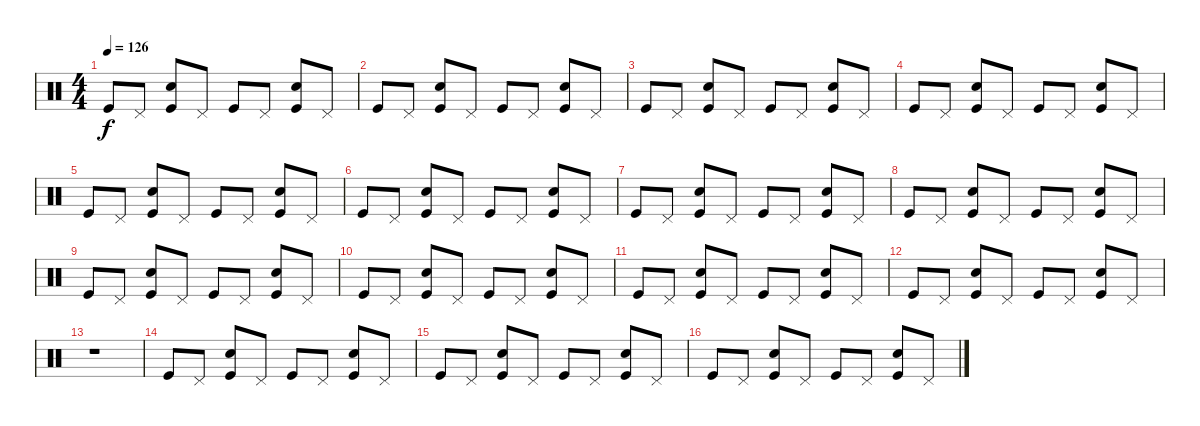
\track "" {instrument percussion}
\staff {score}
\articulation defaults
\ts (4 4)
\tempo 126
\clef neutral
\ks c "Kick (hit)".8{dy f} "Pedal Hi-Hat (hit)".8
("Kick (hit)" "Hand Clap (hit)").8 "Pedal Hi-Hat (hit)".8 "Kick (hit)".8 "Pedal Hi-Hat (hit)".8 ("Kick (hit)" "Hand Clap (hit)").8 "Pedal Hi-Hat (hit)".8 |
"Kick (hit)".8 "Pedal Hi-Hat (hit)".8 ("Kick (hit)" "Hand Clap (hit)").8 "Pedal Hi-Hat (hit)".8 "Kick (hit)".8 "Pedal Hi-Hat (hit)".8 ("Kick (hit)" "Hand Clap (hit)").8 "Pedal Hi-Hat (hit)".8 |
"Kick (hit)".8 "Pedal Hi-Hat (hit)".8 ("Kick (hit)" "Hand Clap (hit)").8 "Pedal Hi-Hat (hit)".8 "Kick (hit)".8 "Pedal Hi-Hat (hit)".8 ("Kick (hit)" "Hand Clap (hit)").8 "Pedal Hi-Hat (hit)".8 |
"Kick (hit)".8 "Pedal Hi-Hat (hit)".8 ("Kick (hit)" "Hand Clap (hit)").8 "Pedal Hi-Hat (hit)".8 "Kick (hit)".8 "Pedal Hi-Hat (hit)".8 ("Kick (hit)" "Hand Clap (hit)").8 "Pedal Hi-Hat (hit)".8 |
"Kick (hit)".8 "Pedal Hi-Hat (hit)".8 ("Kick (hit)" "Hand Clap (hit)").8 "Pedal Hi-Hat (hit)".8 "Kick (hit)".8 "Pedal Hi-Hat (hit)".8 ("Kick (hit)" "Hand Clap (hit)").8 "Pedal Hi-Hat (hit)".8 |
"Kick (hit)".8 "Pedal Hi-Hat (hit)".8 ("Kick (hit)" "Hand Clap (hit)").8 "Pedal Hi-Hat (hit)".8 "Kick (hit)".8 "Pedal Hi-Hat (hit)".8 ("Kick (hit)" "Hand Clap (hit)").8 "Pedal Hi-Hat (hit)".8 |
"Kick (hit)".8 "Pedal Hi-Hat (hit)".8 ("Kick (hit)" "Hand Clap (hit)").8 "Pedal Hi-Hat (hit)".8 "Kick (hit)".8 "Pedal Hi-Hat (hit)".8 ("Kick (hit)" "Hand Clap (hit)").8 "Pedal Hi-Hat (hit)".8 |
"Kick (hit)".8 "Pedal Hi-Hat (hit)".8 ("Kick (hit)" "Hand Clap (hit)").8 "Pedal Hi-Hat (hit)".8 "Kick (hit)".8 "Pedal Hi-Hat (hit)".8 ("Kick (hit)" "Hand Clap (hit)").8 "Pedal Hi-Hat (hit)".8 |
"Kick (hit)".8 "Pedal Hi-Hat (hit)".8 ("Kick (hit)" "Hand Clap (hit)").8 "Pedal Hi-Hat (hit)".8 "Kick (hit)".8 "Pedal Hi-Hat (hit)".8 ("Kick (hit)" "Hand Clap (hit)").8 "Pedal Hi-Hat (hit)".8 |
"Kick (hit)".8 "Pedal Hi-Hat (hit)".8 ("Kick (hit)" "Hand Clap (hit)").8 "Pedal Hi-Hat (hit)".8 "Kick (hit)".8 "Pedal Hi-Hat (hit)".8 ("Kick (hit)" "Hand Clap (hit)").8 "Pedal Hi-Hat (hit)".8 |
"Kick (hit)".8 "Pedal Hi-Hat (hit)".8 ("Kick (hit)" "Hand Clap (hit)").8 "Pedal Hi-Hat (hit)".8 "Kick (hit)".8 "Pedal Hi-Hat (hit)".8 ("Kick (hit)" "Hand Clap (hit)").8 "Pedal Hi-Hat (hit)".8 |
"Kick (hit)".8 "Pedal Hi-Hat (hit)".8 ("Kick (hit)" "Hand Clap (hit)").8 "Pedal Hi-Hat (hit)".8 "Kick (hit)".8 "Pedal Hi-Hat (hit)".8 ("Kick (hit)" "Hand Clap (hit)").8 "Pedal Hi-Hat (hit)".8 |
r.1 |
"Kick (hit)".8 "Pedal Hi-Hat (hit)".8 ("Kick (hit)" "Hand Clap (hit)").8 "Pedal Hi-Hat (hit)".8 "Kick (hit)".8 "Pedal Hi-Hat (hit)".8 ("Kick (hit)" "Hand Clap (hit)").8 "Pedal Hi-Hat (hit)".8 |
"Kick (hit)".8 "Pedal Hi-Hat (hit)".8 ("Kick (hit)" "Hand Clap (hit)").8 "Pedal Hi-Hat (hit)".8 "Kick (hit)".8 "Pedal Hi-Hat (hit)".8 ("Kick (hit)" "Hand Clap (hit)").8 "Pedal Hi-Hat (hit)".8 |
"Kick (hit)".8 "Pedal Hi-Hat (hit)".8 ("Kick (hit)" "Hand Clap (hit)").8 "Pedal Hi-Hat (hit)".8 "Kick (hit)".8 "Pedal Hi-Hat (hit)".8 ("Kick (hit)" "Hand Clap (hit)").8 "Pedal Hi-Hat (hit)".8
